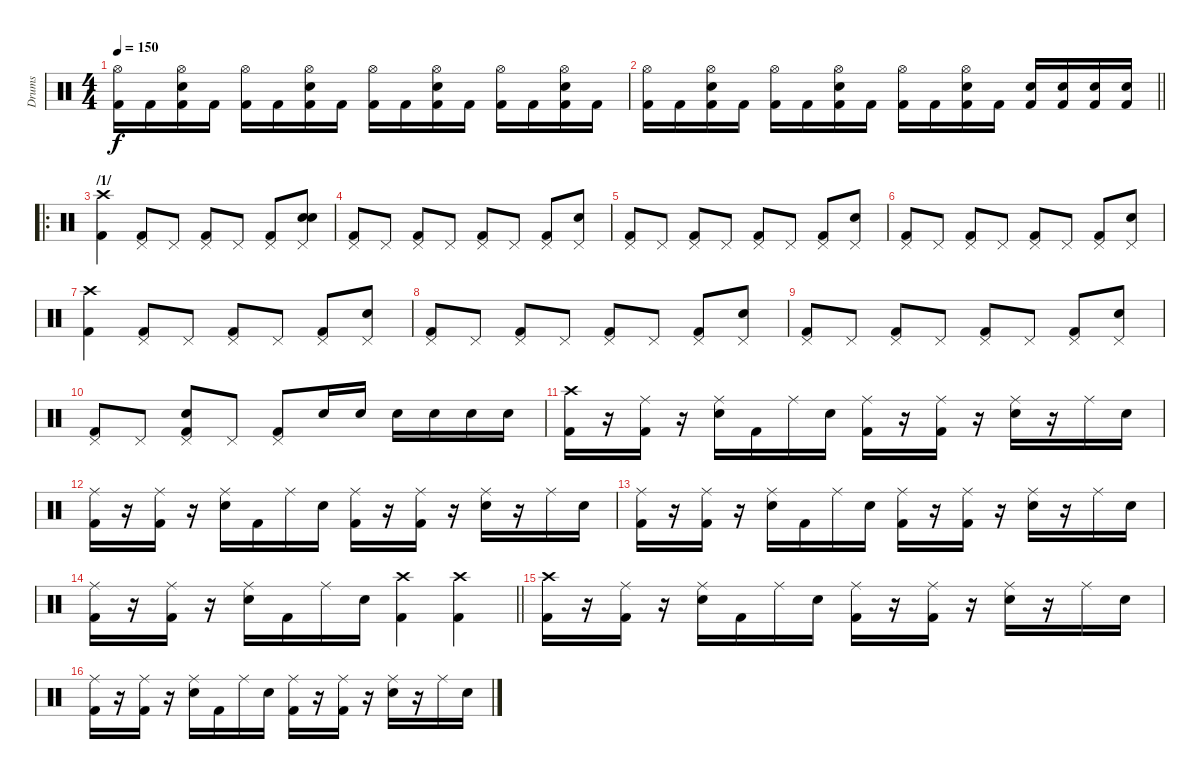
\track ("Drums" "Drums") {instrument percussion}
\staff {score}
\articulation defaults
\ts (4 4)
\tempo 150
\clef neutral
\ks c
("Hi-Hat (open)" "Kick (hit) 2").16{dy f} "Kick (hit) 2".16 ("Hi-Hat (open)" "Electric Snare (hit)" "Kick (hit) 2").16 "Kick (hit) 2".16 ("Hi-Hat (open)" "Kick (hit) 2").16 "Kick (hit) 2".16 ("Hi-Hat (open)" "Electric Snare (hit)" "Kick (hit) 2").16 "Kick (hit) 2".16 ("Hi-Hat (open)" "Kick (hit) 2").16 "Kick (hit) 2".16 ("Hi-Hat (open)" "Electric Snare (hit)" "Kick (hit) 2").16 "Kick (hit) 2".16 ("Hi-Hat (open)" "Kick (hit) 2").16 "Kick (hit) 2".16 ("Hi-Hat (open)" "Electric Snare (hit)" "Kick (hit) 2").16 "Kick (hit) 2".16 |
\barLineRight lightlight
("Hi-Hat (open)" "Kick (hit) 2").16 "Kick (hit) 2".16 ("Hi-Hat (open)" "Electric Snare (hit)" "Kick (hit) 2").16 "Kick (hit) 2".16 ("Hi-Hat (open)" "Kick (hit) 2").16 "Kick (hit) 2".16 ("Hi-Hat (open)" "Electric Snare (hit)" "Kick (hit) 2").16 "Kick (hit) 2".16 ("Hi-Hat (open)" "Kick (hit) 2").16 "Kick (hit) 2".16 ("Hi-Hat (open)" "Electric Snare (hit)" "Kick (hit) 2").16 "Kick (hit) 2".16 ("Electric Snare (hit)" "Kick (hit) 2").16 ("Electric Snare (hit)" "Kick (hit) 2").16 ("Electric Snare (hit)" "Kick (hit) 2").16 ("Electric Snare (hit)" "Kick (hit) 2").16 |
\ro
\section ("" "/1/")
("Crash high (hit)" "Kick (hit) 2").4 ("Pedal Hi-Hat (hit)" "Kick (hit) 2").8 "Pedal Hi-Hat (hit)".8 ("Pedal Hi-Hat (hit)" "Kick (hit) 2").8 "Pedal Hi-Hat (hit)".8 ("Pedal Hi-Hat (hit)" "Kick (hit) 2").8 ("Pedal Hi-Hat (hit)" "Snare (hit) 2" "Electric Snare (hit)").8 |
("Pedal Hi-Hat (hit)" "Kick (hit) 2").8 "Pedal Hi-Hat (hit)".8 ("Pedal Hi-Hat (hit)" "Kick (hit) 2").8 "Pedal Hi-Hat (hit)".8 ("Pedal Hi-Hat (hit)" "Kick (hit) 2").8 "Pedal Hi-Hat (hit)".8 ("Pedal Hi-Hat (hit)" "Kick (hit) 2").8 ("Pedal Hi-Hat (hit)" "Snare (hit) 2").8 |
("Pedal Hi-Hat (hit)" "Kick (hit) 2").8 "Pedal Hi-Hat (hit)".8 ("Pedal Hi-Hat (hit)" "Kick (hit) 2").8 "Pedal Hi-Hat (hit)".8 ("Pedal Hi-Hat (hit)" "Kick (hit) 2").8 "Pedal Hi-Hat (hit)".8 ("Pedal Hi-Hat (hit)" "Kick (hit) 2").8 ("Pedal Hi-Hat (hit)" "Snare (hit) 2").8 |
("Pedal Hi-Hat (hit)" "Kick (hit) 2").8 "Pedal Hi-Hat (hit)".8 ("Pedal Hi-Hat (hit)" "Kick (hit) 2").8 "Pedal Hi-Hat (hit)".8 ("Pedal Hi-Hat (hit)" "Kick (hit) 2").8 "Pedal Hi-Hat (hit)".8 ("Pedal Hi-Hat (hit)" "Kick (hit) 2").8 ("Pedal Hi-Hat (hit)" "Snare (hit) 2").8 |
("Crash high (hit)" "Kick (hit) 2").4 ("Pedal Hi-Hat (hit)" "Kick (hit) 2").8 "Pedal Hi-Hat (hit)".8 ("Pedal Hi-Hat (hit)" "Kick (hit) 2").8 "Pedal Hi-Hat (hit)".8 ("Pedal Hi-Hat (hit)" "Kick (hit) 2").8 ("Pedal Hi-Hat (hit)" "Snare (hit) 2").8 |
("Pedal Hi-Hat (hit)" "Kick (hit) 2").8 "Pedal Hi-Hat (hit)".8 ("Pedal Hi-Hat (hit)" "Kick (hit) 2").8 "Pedal Hi-Hat (hit)".8 ("Pedal Hi-Hat (hit)" "Kick (hit) 2").8 "Pedal Hi-Hat (hit)".8 ("Pedal Hi-Hat (hit)" "Kick (hit) 2").8 ("Pedal Hi-Hat (hit)" "Snare (hit) 2").8 |
("Pedal Hi-Hat (hit)" "Kick (hit) 2").8 "Pedal Hi-Hat (hit)".8 ("Pedal Hi-Hat (hit)" "Kick (hit) 2").8 "Pedal Hi-Hat (hit)".8 ("Pedal Hi-Hat (hit)" "Kick (hit) 2").8 "Pedal Hi-Hat (hit)".8 ("Pedal Hi-Hat (hit)" "Kick (hit) 2").8 ("Pedal Hi-Hat (hit)" "Snare (hit) 2").8 |
("Pedal Hi-Hat (hit)" "Kick (hit) 2").8 "Pedal Hi-Hat (hit)".8 ("Pedal Hi-Hat (hit)" "Snare (hit) 2" "Kick (hit) 2").8 "Pedal Hi-Hat (hit)".8 ("Pedal Hi-Hat (hit)" "Kick (hit) 2").8 "Snare (hit) 2".16 "Snare (hit) 2".16 "Snare (hit) 2".16 "Snare (hit) 2".16 "Snare (hit) 2".16 "Snare (hit) 2".16 |
("Crash high (hit)" "Kick (hit) 2").16 r.16 ("Ride (middle)" "Kick (hit) 2").16 r.16 ("Ride (middle)" "Snare (hit) 2").16 "Kick (hit) 2".16 "Ride (middle)".16 "Snare (hit) 2".16 ("Ride (middle)" "Kick (hit) 2").16 r.16 ("Ride (middle)" "Kick (hit) 2").16 r.16 ("Ride (middle)" "Snare (hit) 2").16 r.16 "Ride (middle)".16 "Snare (hit) 2".16 |
("Ride (middle)" "Kick (hit) 2").16 r.16 ("Ride (middle)" "Kick (hit) 2").16 r.16 ("Ride (middle)" "Snare (hit) 2").16 "Kick (hit) 2".16 "Ride (middle)".16 "Snare (hit) 2".16 ("Ride (middle)" "Kick (hit) 2").16 r.16 ("Ride (middle)" "Kick (hit) 2").16 r.16 ("Ride (middle)" "Snare (hit) 2").16 r.16 "Ride (middle)".16 "Snare (hit) 2".16 |
("Ride (middle)" "Kick (hit) 2").16 r.16 ("Ride (middle)" "Kick (hit) 2").16 r.16 ("Ride (middle)" "Snare (hit) 2").16 "Kick (hit) 2".16 "Ride (middle)".16 "Snare (hit) 2".16 ("Ride (middle)" "Kick (hit) 2").16 r.16 ("Ride (middle)" "Kick (hit) 2").16 r.16 ("Ride (middle)" "Snare (hit) 2").16 r.16 "Ride (middle)".16 "Snare (hit) 2".16 |
\barLineRight lightlight
("Ride (middle)" "Kick (hit) 2").16 r.16 ("Ride (middle)" "Kick (hit) 2").16 r.16 ("Ride (middle)" "Snare (hit) 2").16 "Kick (hit) 2".16 "Ride (middle)".16 "Snare (hit) 2".16 ("Crash high (hit)" "Kick (hit) 2").4 ("Crash high (hit)" "Kick (hit) 2").4 |
("Crash high (hit)" "Kick (hit) 2").16 r.16 ("Ride (middle)" "Kick (hit) 2").16 r.16 ("Ride (middle)" "Snare (hit) 2").16 "Kick (hit) 2".16 "Ride (middle)".16 "Snare (hit) 2".16 ("Ride (middle)" "Kick (hit) 2").16 r.16 ("Ride (middle)" "Kick (hit) 2").16 r.16 ("Ride (middle)" "Snare (hit) 2").16 r.16 "Ride (middle)".16 "Snare (hit) 2".16 |
("Ride (middle)" "Kick (hit) 2").16 r.16 ("Ride (middle)" "Kick (hit) 2").16 r.16 ("Ride (middle)" "Snare (hit) 2").16 "Kick (hit) 2".16 "Ride (middle)".16 "Snare (hit) 2".16 ("Ride (middle)" "Kick (hit) 2").16 r.16 ("Ride (middle)" "Kick (hit) 2").16 r.16 ("Ride (middle)" "Snare (hit) 2").16 r.16 "Ride (middle)".16 "Snare (hit) 2".16
